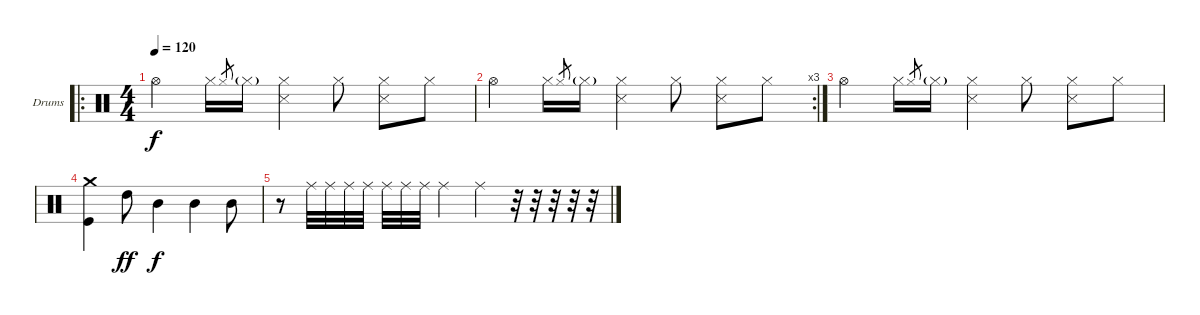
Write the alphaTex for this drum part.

\defaultSystemsLayout 4
\bracketExtendMode groupsimilarinstruments
\firstSystemTrackNameOrientation horizontal
\otherSystemsTrackNameOrientation horizontal
\track ("Drumkit" "Drums") {instrument percussion}
\staff {score}
\articulation defaults
\ro
\ts (4 4)
\tempo 120
\clef neutral
\ks c "Hi-Hat (open)".4{dy f} "Hi-Hat (closed)".16 "Hi-Hat (closed)".8{gr} "Hi-Hat (closed)"{g}.16
("Hi-Hat (closed)" "Snare (side stick) 3").4 "Hi-Hat (closed)".8 ("Hi-Hat (closed)" "Snare (side stick) 3").8 "Hi-Hat (closed)".8 |
\rc 3 "Hi-Hat (open)".4 "Hi-Hat (closed)".16 "Hi-Hat (closed)".8{gr} "Hi-Hat (closed)"{g}.16
("Hi-Hat (closed)" "Snare (side stick) 3").4 "Hi-Hat (closed)".8 ("Hi-Hat (closed)" "Snare (side stick) 3").8 "Hi-Hat (closed)".8 |
"Hi-Hat (open)".4 "Hi-Hat (closed)".16 "Hi-Hat (closed)".8{gr} "Hi-Hat (closed)"{g}.16 ("Hi-Hat (closed)" "Snare (side stick) 3").4 "Hi-Hat (closed)".8 ("Hi-Hat (closed)" "Snare (side stick) 3").8 "Hi-Hat (closed)".8 |
("Kick (hit)" "Crash medium (hit)").4 "High Tom (hit)".8{dy ff} "Mid Tom (hit)".4{dy f} "Mid Tom (hit)".4 "Mid Tom (hit)".8 |
r.8 "Ride (middle)".32 "Ride (middle)".32 "Ride (middle)".32 "Ride (middle)".32 "Ride (middle)".32 "Ride (middle)".32 "Ride (middle)".32 "Ride (middle)".4 "Ride (middle)".4 r.32 r.32 r.32 r.32 r.32
